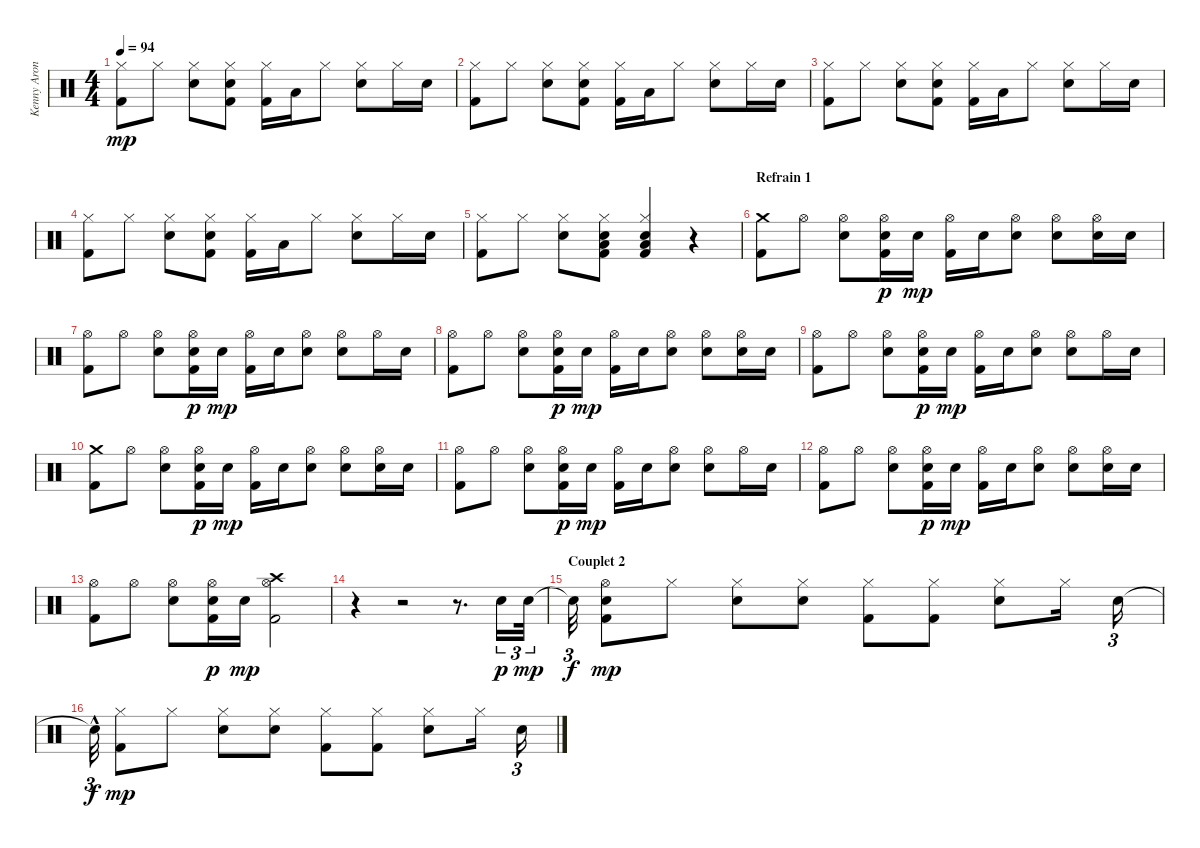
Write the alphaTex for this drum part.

\track ("Kenny Aronoff - Batterie" "Kenny Aron") {instrument percussion}
\staff {score}
\articulation defaults
\ts (4 4)
\tempo 94
\clef neutral
\ks c
("Kick (hit) 2" "Hi-Hat (closed)").8{dy mp} "Hi-Hat (closed)".8 ("Electric Snare (hit)" "Hi-Hat (closed)").8 ("Kick (hit) 2" "Hi-Hat (closed)" "Electric Snare (hit)").8 ("Kick (hit) 2" "Hi-Hat (closed)").16 "Low Tom (hit)".16 "Hi-Hat (closed)".8 ("Electric Snare (hit)" "Hi-Hat (closed)").8 "Hi-Hat (closed)".16 "Electric Snare (hit)".16 |
("Kick (hit) 2" "Hi-Hat (closed)").8 "Hi-Hat (closed)".8 ("Electric Snare (hit)" "Hi-Hat (closed)").8 ("Kick (hit) 2" "Hi-Hat (closed)" "Electric Snare (hit)").8 ("Kick (hit) 2" "Hi-Hat (closed)").16 "Low Tom (hit)".16 "Hi-Hat (closed)".8 ("Electric Snare (hit)" "Hi-Hat (closed)").8 "Hi-Hat (closed)".16 "Electric Snare (hit)".16 |
("Kick (hit) 2" "Hi-Hat (closed)").8 "Hi-Hat (closed)".8 ("Electric Snare (hit)" "Hi-Hat (closed)").8 ("Kick (hit) 2" "Hi-Hat (closed)" "Electric Snare (hit)").8 ("Kick (hit) 2" "Hi-Hat (closed)").16 "Low Tom (hit)".16 "Hi-Hat (closed)".8 ("Electric Snare (hit)" "Hi-Hat (closed)").8 "Hi-Hat (closed)".16 "Electric Snare (hit)".16 |
("Kick (hit) 2" "Hi-Hat (closed)").8 "Hi-Hat (closed)".8 ("Electric Snare (hit)" "Hi-Hat (closed)").8 ("Kick (hit) 2" "Hi-Hat (closed)" "Electric Snare (hit)").8 ("Kick (hit) 2" "Hi-Hat (closed)").16 "Low Tom (hit)".16 "Hi-Hat (closed)".8 ("Electric Snare (hit)" "Hi-Hat (closed)").8 "Hi-Hat (closed)".16 "Electric Snare (hit)".16 |
("Kick (hit) 2" "Hi-Hat (closed)").8 "Hi-Hat (closed)".8 ("Electric Snare (hit)" "Hi-Hat (closed)").8 ("Kick (hit) 2" "Hi-Hat (closed)" "Electric Snare (hit)" "Low Tom (hit)").8 ("Kick (hit) 2" "Hi-Hat (closed)" "Electric Snare (hit)" "Low Tom (hit)").4 r.4 |
\section ("" "Refrain 1")
("Kick (hit) 2" "Crash medium (hit)").8 "Hi-Hat (open)".8 ("Hi-Hat (open)" "Electric Snare (hit)").8 ("Kick (hit) 2" "Hi-Hat (open)" "Electric Snare (hit)").16{dy p} "Electric Snare (hit)".16{dy mp} ("Kick (hit) 2" "Hi-Hat (open)").16 "Electric Snare (hit)".16 ("Hi-Hat (open)" "Electric Snare (hit)").8 ("Electric Snare (hit)" "Hi-Hat (open)").8 ("Hi-Hat (open)" "Electric Snare (hit)").16 "Electric Snare (hit)".16 |
("Kick (hit) 2" "Hi-Hat (open)").8 "Hi-Hat (open)".8 ("Hi-Hat (open)" "Electric Snare (hit)").8 ("Kick (hit) 2" "Hi-Hat (open)" "Electric Snare (hit)").16{dy p} "Electric Snare (hit)".16{dy mp} ("Kick (hit) 2" "Hi-Hat (open)").16 "Electric Snare (hit)".16 ("Hi-Hat (open)" "Electric Snare (hit)").8 ("Electric Snare (hit)" "Hi-Hat (open)").8 "Hi-Hat (open)".16 "Electric Snare (hit)".16 |
("Kick (hit) 2" "Hi-Hat (open)").8 "Hi-Hat (open)".8 ("Hi-Hat (open)" "Electric Snare (hit)").8 ("Kick (hit) 2" "Hi-Hat (open)" "Electric Snare (hit)").16{dy p} "Electric Snare (hit)".16{dy mp} ("Kick (hit) 2" "Hi-Hat (open)").16 "Electric Snare (hit)".16 ("Hi-Hat (open)" "Electric Snare (hit)").8 ("Electric Snare (hit)" "Hi-Hat (open)").8 ("Hi-Hat (open)" "Electric Snare (hit)").16 "Electric Snare (hit)".16 |
("Kick (hit) 2" "Hi-Hat (open)").8 "Hi-Hat (open)".8 ("Hi-Hat (open)" "Electric Snare (hit)").8 ("Kick (hit) 2" "Hi-Hat (open)" "Electric Snare (hit)").16{dy p} "Electric Snare (hit)".16{dy mp} ("Kick (hit) 2" "Hi-Hat (open)").16 "Electric Snare (hit)".16 ("Hi-Hat (open)" "Electric Snare (hit)").8 ("Electric Snare (hit)" "Hi-Hat (open)").8 "Hi-Hat (open)".16 "Electric Snare (hit)".16 |
("Kick (hit) 2" "Crash medium (hit)").8 "Hi-Hat (open)".8 ("Hi-Hat (open)" "Electric Snare (hit)").8 ("Kick (hit) 2" "Hi-Hat (open)" "Electric Snare (hit)").16{dy p} "Electric Snare (hit)".16{dy mp} ("Kick (hit) 2" "Hi-Hat (open)").16 "Electric Snare (hit)".16 ("Hi-Hat (open)" "Electric Snare (hit)").8 ("Electric Snare (hit)" "Hi-Hat (open)").8 ("Hi-Hat (open)" "Electric Snare (hit)").16 "Electric Snare (hit)".16 |
("Kick (hit) 2" "Hi-Hat (open)").8 "Hi-Hat (open)".8 ("Hi-Hat (open)" "Electric Snare (hit)").8 ("Kick (hit) 2" "Hi-Hat (open)" "Electric Snare (hit)").16{dy p} "Electric Snare (hit)".16{dy mp} ("Kick (hit) 2" "Hi-Hat (open)").16 "Electric Snare (hit)".16 ("Hi-Hat (open)" "Electric Snare (hit)").8 ("Electric Snare (hit)" "Hi-Hat (open)").8 "Hi-Hat (open)".16 "Electric Snare (hit)".16 |
("Kick (hit) 2" "Hi-Hat (open)").8 "Hi-Hat (open)".8 ("Hi-Hat (open)" "Electric Snare (hit)").8 ("Kick (hit) 2" "Hi-Hat (open)" "Electric Snare (hit)").16{dy p} "Electric Snare (hit)".16{dy mp} ("Kick (hit) 2" "Hi-Hat (open)").16 "Electric Snare (hit)".16 ("Hi-Hat (open)" "Electric Snare (hit)").8 ("Electric Snare (hit)" "Hi-Hat (open)").8 ("Hi-Hat (open)" "Electric Snare (hit)").16 "Electric Snare (hit)".16 |
("Kick (hit) 2" "Hi-Hat (open)").8 "Hi-Hat (open)".8 ("Hi-Hat (open)" "Electric Snare (hit)").8 ("Kick (hit) 2" "Hi-Hat (open)" "Electric Snare (hit)").16{dy p} "Electric Snare (hit)".16{dy mp} ("Kick (hit) 2" "Hi-Hat (open)" "Crash high (hit)").2 |
r.4 r.2 r.8{d} "Electric Snare (hit)".16{tu (3 2) dy p} "Electric Snare (hit)".32{tu (3 2) dy mp} |
\section ("" "Couplet 2")
"Snare (hit)"{t}.32{tu (3 2) dy f} ("Kick (hit) 2" "Hi-Hat (open)" "Electric Snare (hit)").8{dy mp} "Hi-Hat (closed)".8 ("Hi-Hat (closed)" "Electric Snare (hit)").8 ("Hi-Hat (closed)" "Electric Snare (hit)").8 ("Kick (hit) 2" "Hi-Hat (closed)").8 ("Hi-Hat (closed)" "Kick (hit) 2").8 ("Hi-Hat (closed)" "Electric Snare (hit)").8 "Hi-Hat (closed)".16 "Electric Snare (hit)".16{tu (3 2)} |
"Snare (hit)"{hac t}.32{tu (3 2) dy f} ("Kick (hit) 2" "Hi-Hat (closed)").8{dy mp} "Hi-Hat (closed)".8 ("Electric Snare (hit)" "Hi-Hat (closed)").8 ("Hi-Hat (closed)" "Electric Snare (hit)").8 ("Kick (hit) 2" "Hi-Hat (closed)").8 ("Hi-Hat (closed)" "Kick (hit) 2").8 ("Electric Snare (hit)" "Hi-Hat (closed)").8 "Hi-Hat (closed)".16 "Electric Snare (hit)".16{tu (3 2)}
